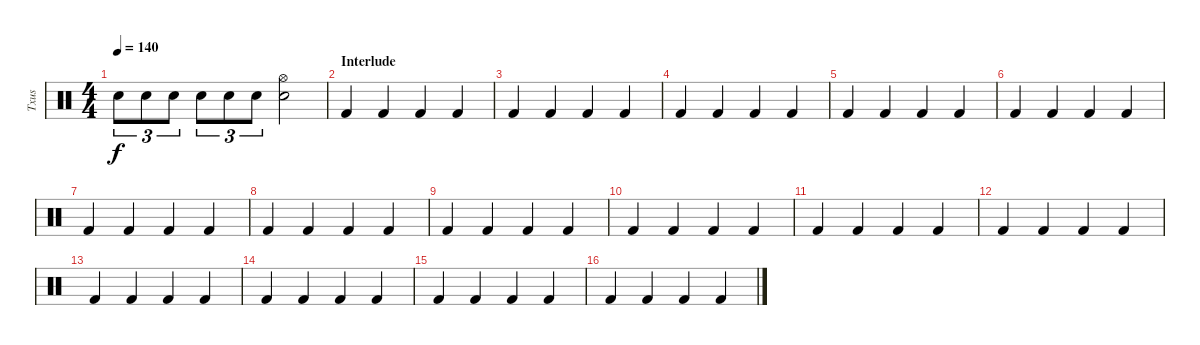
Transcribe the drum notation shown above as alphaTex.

\track ("Txus" "Txus") {instrument percussion}
\staff {score}
\articulation defaults
\ts (4 4)
\tempo 140
\clef neutral
\ks c "Snare (hit) 2".8{tu (3 2) dy f} "Snare (hit) 2".8{tu (3 2)} "Snare (hit) 2".8{tu (3 2)} "Snare (hit) 2".8{tu (3 2)} "Snare (hit) 2".8{tu (3 2)} "Snare (hit) 2".8{tu (3 2)}
("Snare (hit) 2" "Hi-Hat (open)").2 |
\section ("" "Interlude")
"Kick (hit) 2".4 "Kick (hit) 2".4 "Kick (hit) 2".4 "Kick (hit) 2".4 |
"Kick (hit) 2".4 "Kick (hit) 2".4 "Kick (hit) 2".4 "Kick (hit) 2".4 |
"Kick (hit) 2".4 "Kick (hit) 2".4 "Kick (hit) 2".4 "Kick (hit) 2".4 |
"Kick (hit) 2".4 "Kick (hit) 2".4 "Kick (hit) 2".4 "Kick (hit) 2".4 |
"Kick (hit) 2".4 "Kick (hit) 2".4 "Kick (hit) 2".4 "Kick (hit) 2".4 |
"Kick (hit) 2".4 "Kick (hit) 2".4 "Kick (hit) 2".4 "Kick (hit) 2".4 |
"Kick (hit) 2".4 "Kick (hit) 2".4 "Kick (hit) 2".4 "Kick (hit) 2".4 |
"Kick (hit) 2".4 "Kick (hit) 2".4 "Kick (hit) 2".4 "Kick (hit) 2".4 |
"Kick (hit) 2".4 "Kick (hit) 2".4 "Kick (hit) 2".4 "Kick (hit) 2".4 |
"Kick (hit) 2".4 "Kick (hit) 2".4 "Kick (hit) 2".4 "Kick (hit) 2".4 |
"Kick (hit) 2".4 "Kick (hit) 2".4 "Kick (hit) 2".4 "Kick (hit) 2".4 |
"Kick (hit) 2".4 "Kick (hit) 2".4 "Kick (hit) 2".4 "Kick (hit) 2".4 |
"Kick (hit) 2".4 "Kick (hit) 2".4 "Kick (hit) 2".4 "Kick (hit) 2".4 |
"Kick (hit) 2".4 "Kick (hit) 2".4 "Kick (hit) 2".4 "Kick (hit) 2".4 |
"Kick (hit) 2".4 "Kick (hit) 2".4 "Kick (hit) 2".4 "Kick (hit) 2".4
